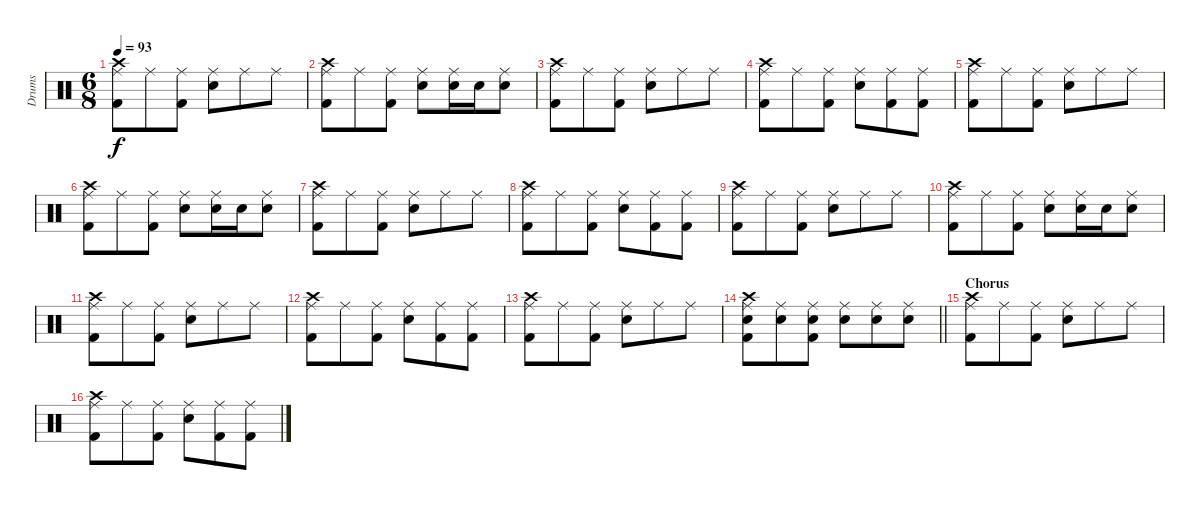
\track ("Drums" "Drums") {instrument percussion}
\staff {score}
\articulation defaults
\ts (6 8)
\tempo 93
\clef neutral
\ks c
("Crash high (hit)" "Ride (middle)" "Kick (hit) 2").8{dy f} "Ride (middle)".8 ("Ride (middle)" "Kick (hit) 2").8 ("Ride (middle)" "Snare (hit) 2").8 "Ride (middle)".8 "Ride (middle)".8 |
("Crash high (hit)" "Ride (middle)" "Kick (hit) 2").8 "Ride (middle)".8 ("Ride (middle)" "Kick (hit) 2").8 ("Ride (middle)" "Snare (hit) 2").8 ("Ride (middle)" "Snare (hit) 2").16 "Snare (hit) 2".16 ("Ride (middle)" "Snare (hit) 2").8 |
("Crash high (hit)" "Ride (middle)" "Kick (hit) 2").8 "Ride (middle)".8 ("Ride (middle)" "Kick (hit) 2").8 ("Ride (middle)" "Snare (hit) 2").8 "Ride (middle)".8 "Ride (middle)".8 |
("Crash high (hit)" "Ride (middle)" "Kick (hit) 2").8 "Ride (middle)".8 ("Ride (middle)" "Kick (hit) 2").8 ("Ride (middle)" "Snare (hit) 2").8 ("Ride (middle)" "Kick (hit) 2").8 ("Ride (middle)" "Kick (hit) 2").8 |
("Crash high (hit)" "Ride (middle)" "Kick (hit) 2").8 "Ride (middle)".8 ("Ride (middle)" "Kick (hit) 2").8 ("Ride (middle)" "Snare (hit) 2").8 "Ride (middle)".8 "Ride (middle)".8 |
("Crash high (hit)" "Ride (middle)" "Kick (hit) 2").8 "Ride (middle)".8 ("Ride (middle)" "Kick (hit) 2").8 ("Ride (middle)" "Snare (hit) 2").8 ("Ride (middle)" "Snare (hit) 2").16 "Snare (hit) 2".16 ("Ride (middle)" "Snare (hit) 2").8 |
("Crash high (hit)" "Ride (middle)" "Kick (hit) 2").8 "Ride (middle)".8 ("Ride (middle)" "Kick (hit) 2").8 ("Ride (middle)" "Snare (hit) 2").8 "Ride (middle)".8 "Ride (middle)".8 |
("Crash high (hit)" "Ride (middle)" "Kick (hit) 2").8 "Ride (middle)".8 ("Ride (middle)" "Kick (hit) 2").8 ("Ride (middle)" "Snare (hit) 2").8 ("Ride (middle)" "Kick (hit) 2").8 ("Ride (middle)" "Kick (hit) 2").8 |
("Crash high (hit)" "Ride (middle)" "Kick (hit) 2").8 "Ride (middle)".8 ("Ride (middle)" "Kick (hit) 2").8 ("Ride (middle)" "Snare (hit) 2").8 "Ride (middle)".8 "Ride (middle)".8 |
("Crash high (hit)" "Ride (middle)" "Kick (hit) 2").8 "Ride (middle)".8 ("Ride (middle)" "Kick (hit) 2").8 ("Ride (middle)" "Snare (hit) 2").8 ("Ride (middle)" "Snare (hit) 2").16 "Snare (hit) 2".16 ("Ride (middle)" "Snare (hit) 2").8 |
("Crash high (hit)" "Ride (middle)" "Kick (hit) 2").8 "Ride (middle)".8 ("Ride (middle)" "Kick (hit) 2").8 ("Ride (middle)" "Snare (hit) 2").8 "Ride (middle)".8 "Ride (middle)".8 |
("Crash high (hit)" "Ride (middle)" "Kick (hit) 2").8 "Ride (middle)".8 ("Ride (middle)" "Kick (hit) 2").8 ("Ride (middle)" "Snare (hit) 2").8 ("Ride (middle)" "Kick (hit) 2").8 ("Ride (middle)" "Kick (hit) 2").8 |
("Crash high (hit)" "Ride (middle)" "Kick (hit) 2").8 "Ride (middle)".8 ("Ride (middle)" "Kick (hit) 2").8 ("Ride (middle)" "Snare (hit) 2").8 "Ride (middle)".8 "Ride (middle)".8 |
\barLineRight lightlight
("Crash high (hit)" "Ride (middle)" "Snare (hit) 2" "Kick (hit) 2").8 ("Ride (middle)" "Snare (hit) 2").8 ("Ride (middle)" "Snare (hit) 2" "Kick (hit) 2").8 ("Ride (middle)" "Snare (hit) 2").8 ("Ride (middle)" "Snare (hit) 2").8 ("Ride (middle)" "Snare (hit) 2").8 |
\section ("" "Chorus")
("Crash high (hit)" "Ride (middle)" "Kick (hit) 2").8 "Ride (middle)".8 ("Ride (middle)" "Kick (hit) 2").8 ("Ride (middle)" "Snare (hit) 2").8 "Ride (middle)".8 "Ride (middle)".8 |
("Crash high (hit)" "Ride (middle)" "Kick (hit) 2").8 "Ride (middle)".8 ("Ride (middle)" "Kick (hit) 2").8 ("Ride (middle)" "Snare (hit) 2").8 ("Ride (middle)" "Kick (hit) 2").8 ("Ride (middle)" "Kick (hit) 2").8
